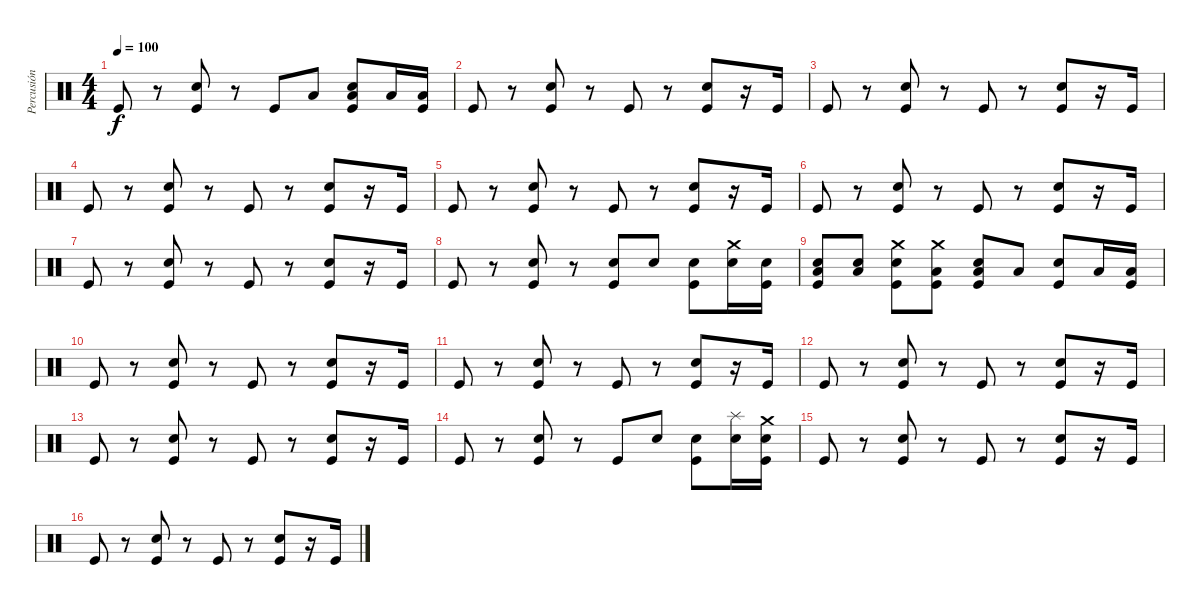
\track ("Percusión" "Percusión") {instrument percussion}
\staff {score}
\articulation defaults
\ts (4 4)
\tempo 100
\clef neutral
\ks c "Kick (hit)".8{dy f}
r.8 ("Kick (hit)" "Electric Snare (hit)").8 r.8 "Kick (hit)".8 "Low Floor Tom (hit)".8 ("Kick (hit)" "Electric Snare (hit)" "Low Floor Tom (hit)").8 "Low Floor Tom (hit)".16 ("Kick (hit)" "Low Floor Tom (hit)").16 |
"Kick (hit)".8 r.8 ("Kick (hit)" "Electric Snare (hit)").8 r.8 "Kick (hit)".8 r.8 ("Kick (hit)" "Electric Snare (hit)").8 r.16 "Kick (hit)".16 |
"Kick (hit)".8 r.8 ("Kick (hit)" "Electric Snare (hit)").8 r.8 "Kick (hit)".8 r.8 ("Kick (hit)" "Electric Snare (hit)").8 r.16 "Kick (hit)".16 |
"Kick (hit)".8 r.8 ("Kick (hit)" "Electric Snare (hit)").8 r.8 "Kick (hit)".8 r.8 ("Kick (hit)" "Electric Snare (hit)").8 r.16 "Kick (hit)".16 |
"Kick (hit)".8 r.8 ("Kick (hit)" "Electric Snare (hit)").8 r.8 "Kick (hit)".8 r.8 ("Kick (hit)" "Electric Snare (hit)").8 r.16 "Kick (hit)".16 |
"Kick (hit)".8 r.8 ("Kick (hit)" "Electric Snare (hit)").8 r.8 "Kick (hit)".8 r.8 ("Kick (hit)" "Electric Snare (hit)").8 r.16 "Kick (hit)".16 |
"Kick (hit)".8 r.8 ("Kick (hit)" "Electric Snare (hit)").8 r.8 "Kick (hit)".8 r.8 ("Kick (hit)" "Electric Snare (hit)").8 r.16 "Kick (hit)".16 |
"Kick (hit)".8 r.8 ("Kick (hit)" "Electric Snare (hit)").8 r.8 ("Kick (hit)" "Electric Snare (hit)").8 "Electric Snare (hit)".8 ("Kick (hit)" "Electric Snare (hit)").8 ("Electric Snare (hit)" "Crash medium (hit)").16 ("Kick (hit)" "Electric Snare (hit)").16 |
("Kick (hit)" "Electric Snare (hit)" "Low Floor Tom (hit)").8 ("Electric Snare (hit)" "Low Floor Tom (hit)").8 ("Kick (hit)" "Electric Snare (hit)" "Crash medium (hit)").8 ("Kick (hit)" "Low Floor Tom (hit)" "Crash medium (hit)").8 ("Kick (hit)" "Electric Snare (hit)" "Low Floor Tom (hit)").8 "Low Floor Tom (hit)".8 ("Kick (hit)" "Electric Snare (hit)").8 "Low Floor Tom (hit)".16 ("Kick (hit)" "Low Floor Tom (hit)").16 |
"Kick (hit)".8 r.8 ("Kick (hit)" "Electric Snare (hit)").8 r.8 "Kick (hit)".8 r.8 ("Kick (hit)" "Electric Snare (hit)").8 r.16 "Kick (hit)".16 |
"Kick (hit)".8 r.8 ("Kick (hit)" "Electric Snare (hit)").8 r.8 "Kick (hit)".8 r.8 ("Kick (hit)" "Electric Snare (hit)").8 r.16 "Kick (hit)".16 |
"Kick (hit)".8 r.8 ("Kick (hit)" "Electric Snare (hit)").8 r.8 "Kick (hit)".8 r.8 ("Kick (hit)" "Electric Snare (hit)").8 r.16 "Kick (hit)".16 |
"Kick (hit)".8 r.8 ("Kick (hit)" "Electric Snare (hit)").8 r.8 "Kick (hit)".8 r.8 ("Kick (hit)" "Electric Snare (hit)").8 r.16 "Kick (hit)".16 |
"Kick (hit)".8 r.8 ("Kick (hit)" "Electric Snare (hit)").8 r.8 "Kick (hit)".8 "Electric Snare (hit)".8 ("Kick (hit)" "Electric Snare (hit)").8 ("Electric Snare (hit)" "Splash (hit)").16 ("Kick (hit)" "Electric Snare (hit)" "Crash medium (hit)").16 |
"Kick (hit)".8 r.8 ("Kick (hit)" "Electric Snare (hit)").8 r.8 "Kick (hit)".8 r.8 ("Kick (hit)" "Electric Snare (hit)").8 r.16 "Kick (hit)".16 |
"Kick (hit)".8 r.8 ("Kick (hit)" "Electric Snare (hit)").8 r.8 "Kick (hit)".8 r.8 ("Kick (hit)" "Electric Snare (hit)").8 r.16 "Kick (hit)".16
